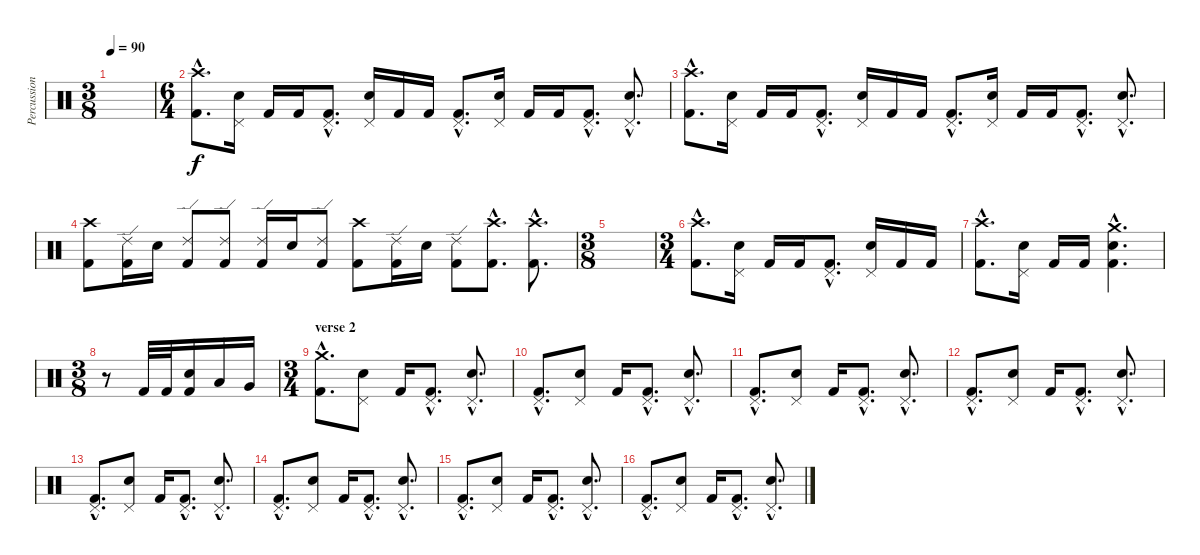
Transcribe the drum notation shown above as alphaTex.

\track ("Percussion" "Percussion") {instrument percussion}
\staff {score}
\articulation defaults
\ts (3 8)
\tempo 90
\clef neutral
\ks c
|
\ts (6 4)
("Kick (hit) 2"{hac} "Crash high (hit)"{hac}).8{d} ("Electric Snare (hit)" "Pedal Hi-Hat (hit)").16 "Kick (hit) 2".16 "Kick (hit) 2".16 ("Kick (hit) 2"{hac} "Pedal Hi-Hat (hit)"{hac}).8{d} ("Electric Snare (hit)" "Pedal Hi-Hat (hit)").16 "Kick (hit) 2".16 "Kick (hit) 2".16 ("Kick (hit) 2"{hac} "Pedal Hi-Hat (hit)"{hac}).8{d} ("Electric Snare (hit)" "Pedal Hi-Hat (hit)").16 "Kick (hit) 2".16 "Kick (hit) 2".16 ("Kick (hit) 2"{hac} "Pedal Hi-Hat (hit)"{hac}).8{d} ("Electric Snare (hit)"{hac} "Pedal Hi-Hat (hit)"{hac}).8{d} |
("Kick (hit) 2"{hac} "Crash high (hit)"{hac}).8{d} ("Electric Snare (hit)" "Pedal Hi-Hat (hit)").16 "Kick (hit) 2".16 "Kick (hit) 2".16 ("Kick (hit) 2"{hac} "Pedal Hi-Hat (hit)"{hac}).8{d} ("Electric Snare (hit)" "Pedal Hi-Hat (hit)").16 "Kick (hit) 2".16 "Kick (hit) 2".16 ("Kick (hit) 2"{hac} "Pedal Hi-Hat (hit)"{hac}).8{d} ("Electric Snare (hit)" "Pedal Hi-Hat (hit)").16 "Kick (hit) 2".16 "Kick (hit) 2".16 ("Kick (hit) 2"{hac} "Pedal Hi-Hat (hit)"{hac}).8{d} ("Electric Snare (hit)"{hac} "Pedal Hi-Hat (hit)"{hac}).8{d} |
("Kick (hit) 2" "Crash high (hit)").8 ("Kick (hit) 2" "Ride (edge) 2").16 "Electric Snare (hit)".16 ("Kick (hit) 2" "Ride (edge) 2").8 ("Kick (hit) 2" "Ride (edge) 2").8 ("Kick (hit) 2" "Ride (edge) 2").16 "Electric Snare (hit)".16 ("Kick (hit) 2" "Ride (edge) 2").8 ("Kick (hit) 2" "Crash high (hit)").8 ("Kick (hit) 2" "Ride (edge) 2").16 "Electric Snare (hit)".16 ("Kick (hit) 2" "Ride (edge) 2").8 ("Kick (hit) 2"{hac} "Crash high (hit)"{hac}).8{d} ("Kick (hit) 2"{hac} "Crash high (hit)"{hac}).8{d} |
\ts (3 8)
|
\ts (3 4)
("Kick (hit) 2"{hac} "Crash high (hit)"{hac}).8{d} ("Electric Snare (hit)" "Pedal Hi-Hat (hit)").16 "Kick (hit) 2".16 "Kick (hit) 2".16 ("Kick (hit) 2"{hac} "Pedal Hi-Hat (hit)"{hac}).8{d} ("Electric Snare (hit)" "Pedal Hi-Hat (hit)").16 "Kick (hit) 2".16 "Kick (hit) 2".16 |
("Kick (hit) 2"{hac} "Crash high (hit)"{hac}).8{d} ("Electric Snare (hit)" "Pedal Hi-Hat (hit)").16 "Kick (hit) 2".16 "Kick (hit) 2".16 ("Kick (hit) 2"{hac} "Electric Snare (hit)"{hac} "Crash medium (hit)"{hac}).4{d} |
\ts (3 8)
r.8 "Kick (hit) 2".32 "Kick (hit) 2".32 ("Kick (hit) 2" "Electric Snare (hit)").16 "Low Tom (hit)".16 "Very Low Tom (hit)".16 |
\ts (3 4)
\section ("" "verse 2")
("Kick (hit) 2"{hac} "Crash medium (hit)"{hac}).8{d} ("Electric Snare (hit)" "Pedal Hi-Hat (hit)").8 "Kick (hit) 2".16 ("Kick (hit) 2"{hac} "Pedal Hi-Hat (hit)"{hac}).8{d} ("Electric Snare (hit)"{hac} "Pedal Hi-Hat (hit)"{hac}).8{d} |
("Kick (hit) 2"{hac} "Pedal Hi-Hat (hit)"{hac}).8{d} ("Electric Snare (hit)" "Pedal Hi-Hat (hit)").8 "Kick (hit) 2".16 ("Kick (hit) 2"{hac} "Pedal Hi-Hat (hit)"{hac}).8{d} ("Electric Snare (hit)"{hac} "Pedal Hi-Hat (hit)"{hac}).8{d} |
("Kick (hit) 2"{hac} "Pedal Hi-Hat (hit)"{hac}).8{d} ("Electric Snare (hit)" "Pedal Hi-Hat (hit)").8 "Kick (hit) 2".16 ("Kick (hit) 2"{hac} "Pedal Hi-Hat (hit)"{hac}).8{d} ("Electric Snare (hit)"{hac} "Pedal Hi-Hat (hit)"{hac}).8{d} |
("Kick (hit) 2"{hac} "Pedal Hi-Hat (hit)"{hac}).8{d} ("Electric Snare (hit)" "Pedal Hi-Hat (hit)").8 "Kick (hit) 2".16 ("Kick (hit) 2"{hac} "Pedal Hi-Hat (hit)"{hac}).8{d} ("Electric Snare (hit)"{hac} "Pedal Hi-Hat (hit)"{hac}).8{d} |
("Kick (hit) 2"{hac} "Pedal Hi-Hat (hit)"{hac}).8{d} ("Electric Snare (hit)" "Pedal Hi-Hat (hit)").8 "Kick (hit) 2".16 ("Kick (hit) 2"{hac} "Pedal Hi-Hat (hit)"{hac}).8{d} ("Electric Snare (hit)"{hac} "Pedal Hi-Hat (hit)"{hac}).8{d} |
("Kick (hit) 2"{hac} "Pedal Hi-Hat (hit)"{hac}).8{d} ("Electric Snare (hit)" "Pedal Hi-Hat (hit)").8 "Kick (hit) 2".16 ("Kick (hit) 2"{hac} "Pedal Hi-Hat (hit)"{hac}).8{d} ("Electric Snare (hit)"{hac} "Pedal Hi-Hat (hit)"{hac}).8{d} |
("Kick (hit) 2"{hac} "Pedal Hi-Hat (hit)"{hac}).8{d} ("Electric Snare (hit)" "Pedal Hi-Hat (hit)").8 "Kick (hit) 2".16 ("Kick (hit) 2"{hac} "Pedal Hi-Hat (hit)"{hac}).8{d} ("Electric Snare (hit)"{hac} "Pedal Hi-Hat (hit)"{hac}).8{d} |
("Kick (hit) 2"{hac} "Pedal Hi-Hat (hit)"{hac}).8{d} ("Electric Snare (hit)" "Pedal Hi-Hat (hit)").8 "Kick (hit) 2".16 ("Kick (hit) 2"{hac} "Pedal Hi-Hat (hit)"{hac}).8{d} ("Electric Snare (hit)"{hac} "Pedal Hi-Hat (hit)"{hac}).8{d}
